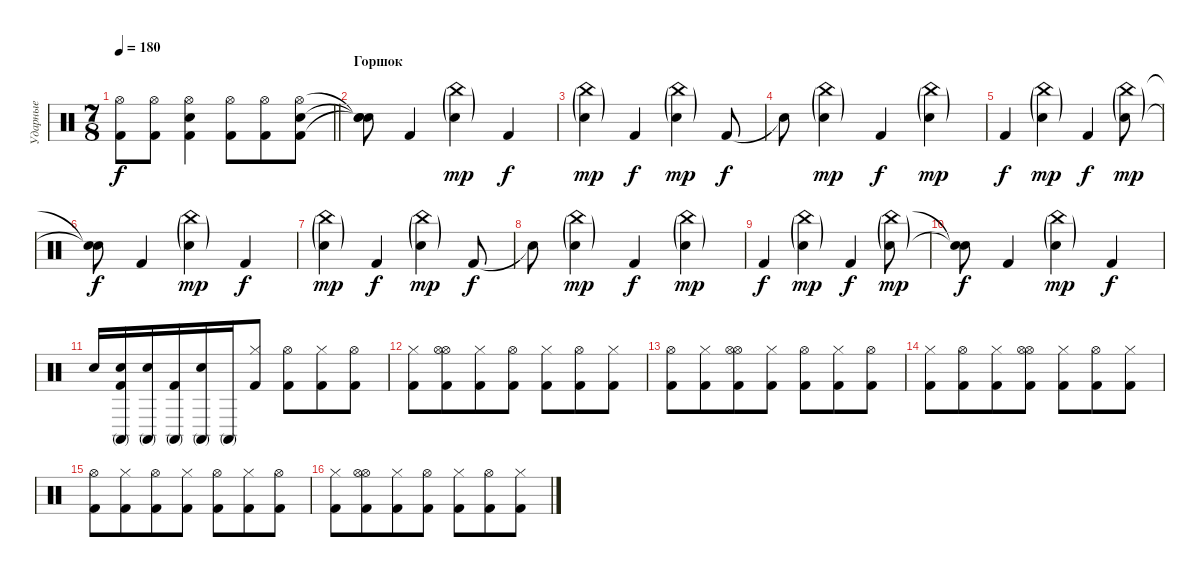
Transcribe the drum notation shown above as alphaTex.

\track ("Ударные" "Ударные") {instrument percussion}
\staff {score}
\articulation defaults
\ts (7 8)
\tempo 180
\clef neutral
\barLineRight lightlight
\ks c
("Hi-Hat (open)" "Kick (hit) 2").8{dy f} ("Hi-Hat (open)" "Kick (hit) 2").8 ("Kick (hit) 2" "Electric Snare (hit)" "Hi-Hat (open)").4 ("Hi-Hat (open)" "Kick (hit) 2").8 ("Hi-Hat (open)" "Kick (hit) 2").8 ("Kick (hit) 2" "Electric Snare (hit)" "Hi-Hat (open)").8 |
\section ("" "Горшок")
("Snare (hit)"{t} "Snare (hit)"{t} "Snare (hit)"{t}).8 "Kick (hit) 2".4 ("China (hit)"{g} "Snare (hit) 2"{g}).4{dy mp} "Kick (hit) 2".4{dy f} |
("China (hit)"{g} "Snare (hit) 2"{g}).4{dy mp} "Kick (hit) 2".4{dy f} ("China (hit)"{g} "Snare (hit) 2"{g}).4{dy mp} "Kick (hit) 2".8{dy f} |
"Snare (hit)"{t}.8 ("China (hit)"{g} "Snare (hit) 2"{g}).4{dy mp} "Kick (hit) 2".4{dy f} ("China (hit)"{g} "Snare (hit) 2"{g}).4{dy mp} |
"Kick (hit) 2".4{dy f} ("China (hit)"{g} "Snare (hit) 2"{g}).4{dy mp} "Kick (hit) 2".4{dy f} ("China (hit)"{g} "Snare (hit) 2"{g}).8{dy mp} |
("Snare (hit)"{t} "Snare (hit)"{t}).8{dy f} "Kick (hit) 2".4 ("China (hit)"{g} "Snare (hit) 2"{g}).4{dy mp} "Kick (hit) 2".4{dy f} |
("China (hit)"{g} "Snare (hit) 2"{g}).4{dy mp} "Kick (hit) 2".4{dy f} ("China (hit)"{g} "Snare (hit) 2"{g}).4{dy mp} "Kick (hit) 2".8{dy f} |
"Snare (hit)"{t}.8 ("China (hit)"{g} "Snare (hit) 2"{g}).4{dy mp} "Kick (hit) 2".4{dy f} ("China (hit)"{g} "Snare (hit) 2"{g}).4{dy mp} |
"Kick (hit) 2".4{dy f} ("China (hit)"{g} "Snare (hit) 2"{g}).4{dy mp} "Kick (hit) 2".4{dy f} ("China (hit)"{g} "Snare (hit) 2"{g}).8{dy mp} |
("Snare (hit)"{t} "Snare (hit)"{t}).8{dy f} "Kick (hit) 2".4 ("China (hit)"{g} "Snare (hit) 2"{g}).4{dy mp} "Kick (hit) 2".4{dy f} |
"Electric Snare (hit)".16 ("Electric Snare (hit)" "Conga high (mute)" "Kick (hit) 2").16 ("Electric Snare (hit)" "Conga high (mute)").16 ("Conga high (mute)" "Kick (hit) 2").16 ("Electric Snare (hit)" "Conga high (mute)").16 "Conga high (mute)".16 ("Hi-Hat (closed)" "Kick (hit) 2").8 ("Hi-Hat (open)" "Kick (hit) 2").8 ("Hi-Hat (closed)" "Kick (hit) 2").8 ("Hi-Hat (open)" "Kick (hit) 2").8 |
("Hi-Hat (closed)" "Kick (hit) 2").8 ("Hi-Hat (open)" "Hi-Hat (open)" "Kick (hit) 2").8 ("Hi-Hat (closed)" "Kick (hit) 2").8 ("Hi-Hat (open)" "Kick (hit) 2").8 ("Hi-Hat (closed)" "Kick (hit) 2").8 ("Hi-Hat (open)" "Kick (hit) 2").8 ("Hi-Hat (closed)" "Kick (hit) 2").8 |
("Hi-Hat (open)" "Kick (hit) 2").8 ("Hi-Hat (closed)" "Kick (hit) 2").8 ("Hi-Hat (open)" "Hi-Hat (open)" "Kick (hit) 2").8 ("Hi-Hat (closed)" "Kick (hit) 2").8 ("Hi-Hat (open)" "Kick (hit) 2").8 ("Hi-Hat (closed)" "Kick (hit) 2").8 ("Hi-Hat (open)" "Kick (hit) 2").8 |
("Hi-Hat (closed)" "Kick (hit) 2").8 ("Hi-Hat (open)" "Kick (hit) 2").8 ("Hi-Hat (closed)" "Kick (hit) 2").8 ("Hi-Hat (open)" "Hi-Hat (open)" "Kick (hit) 2").8 ("Hi-Hat (closed)" "Kick (hit) 2").8 ("Hi-Hat (open)" "Kick (hit) 2").8 ("Hi-Hat (closed)" "Kick (hit) 2").8 |
("Hi-Hat (open)" "Kick (hit) 2").8 ("Hi-Hat (closed)" "Kick (hit) 2").8 ("Hi-Hat (open)" "Kick (hit) 2").8 ("Hi-Hat (closed)" "Kick (hit) 2").8 ("Hi-Hat (open)" "Kick (hit) 2").8 ("Hi-Hat (closed)" "Kick (hit) 2").8 ("Hi-Hat (open)" "Kick (hit) 2").8 |
("Hi-Hat (closed)" "Kick (hit) 2").8 ("Hi-Hat (open)" "Hi-Hat (open)" "Kick (hit) 2").8 ("Hi-Hat (closed)" "Kick (hit) 2").8 ("Hi-Hat (open)" "Kick (hit) 2").8 ("Hi-Hat (closed)" "Kick (hit) 2").8 ("Hi-Hat (open)" "Kick (hit) 2").8 ("Hi-Hat (closed)" "Kick (hit) 2").8
